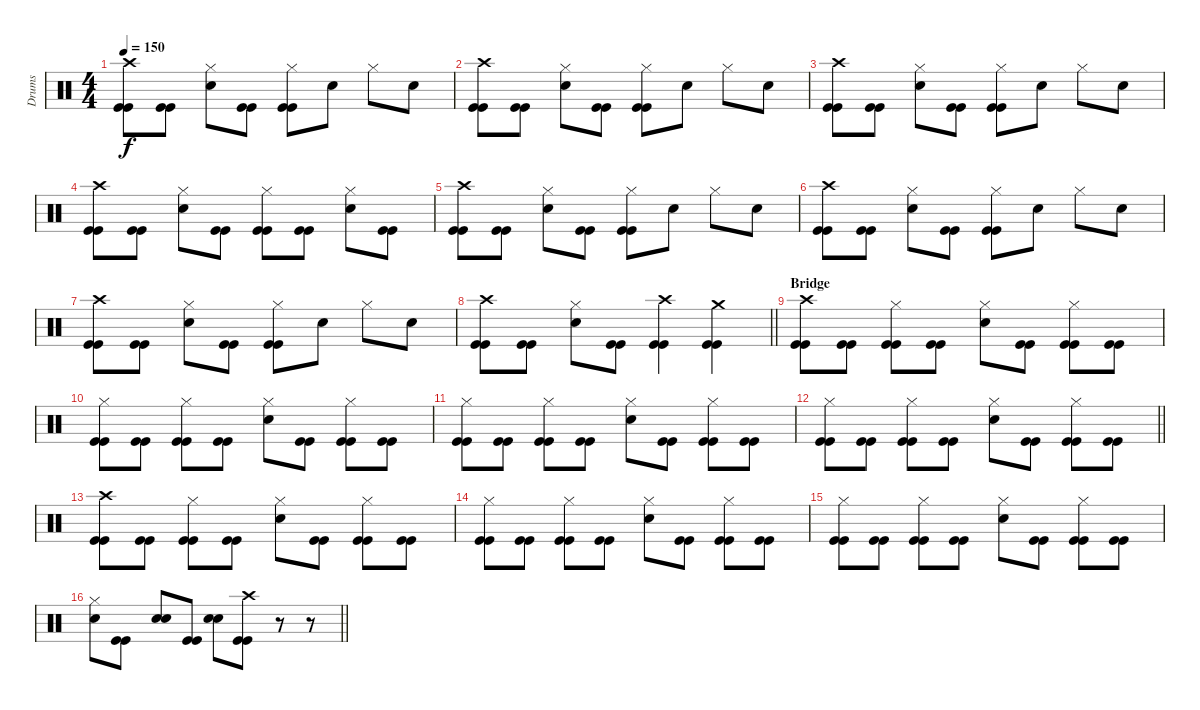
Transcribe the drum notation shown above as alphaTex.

\track ("Drums" "Drums") {instrument percussion}
\staff {score}
\articulation defaults
\ts (4 4)
\tempo 150
\clef neutral
\ks c
("Crash high (hit)" "Kick (hit)" "Kick (hit)").8{dy f} ("Kick (hit)" "Kick (hit)").8 ("Hi-Hat (closed)" "Snare (hit) 2").8 ("Kick (hit)" "Kick (hit)").8 ("Hi-Hat (closed)" "Kick (hit)" "Kick (hit)").8 "Snare (hit) 2".8 "Hi-Hat (closed)".8 "Snare (hit) 2".8 |
("Crash high (hit)" "Kick (hit)" "Kick (hit)").8 ("Kick (hit)" "Kick (hit)").8 ("Hi-Hat (closed)" "Snare (hit) 2").8 ("Kick (hit)" "Kick (hit)").8 ("Hi-Hat (closed)" "Kick (hit)" "Kick (hit)").8 "Snare (hit) 2".8 "Hi-Hat (closed)".8 "Snare (hit) 2".8 |
("Crash high (hit)" "Kick (hit)" "Kick (hit)").8 ("Kick (hit)" "Kick (hit)").8 ("Hi-Hat (closed)" "Snare (hit) 2").8 ("Kick (hit)" "Kick (hit)").8 ("Hi-Hat (closed)" "Kick (hit)" "Kick (hit)").8 "Snare (hit) 2".8 "Hi-Hat (closed)".8 "Snare (hit) 2".8 |
("Crash high (hit)" "Kick (hit)" "Kick (hit)").8 ("Kick (hit)" "Kick (hit)").8 ("Hi-Hat (closed)" "Snare (hit) 2").8 ("Kick (hit)" "Kick (hit)").8 ("Hi-Hat (closed)" "Kick (hit)" "Kick (hit)").8 ("Kick (hit)" "Kick (hit)").8 ("Hi-Hat (closed)" "Snare (hit) 2").8 ("Kick (hit)" "Kick (hit)").8 |
("Crash high (hit)" "Kick (hit)" "Kick (hit)").8 ("Kick (hit)" "Kick (hit)").8 ("Hi-Hat (closed)" "Snare (hit) 2").8 ("Kick (hit)" "Kick (hit)").8 ("Hi-Hat (closed)" "Kick (hit)" "Kick (hit)").8 "Snare (hit) 2".8 "Hi-Hat (closed)".8 "Snare (hit) 2".8 |
("Crash high (hit)" "Kick (hit)" "Kick (hit)").8 ("Kick (hit)" "Kick (hit)").8 ("Hi-Hat (closed)" "Snare (hit) 2").8 ("Kick (hit)" "Kick (hit)").8 ("Hi-Hat (closed)" "Kick (hit)" "Kick (hit)").8 "Snare (hit) 2".8 "Hi-Hat (closed)".8 "Snare (hit) 2".8 |
("Crash high (hit)" "Kick (hit)" "Kick (hit)").8 ("Kick (hit)" "Kick (hit)").8 ("Hi-Hat (closed)" "Snare (hit) 2").8 ("Kick (hit)" "Kick (hit)").8 ("Hi-Hat (closed)" "Kick (hit)" "Kick (hit)").8 "Snare (hit) 2".8 "Hi-Hat (closed)".8 "Snare (hit) 2".8 |
\barLineRight lightlight
("Crash high (hit)" "Kick (hit)" "Kick (hit)").8 ("Kick (hit)" "Kick (hit)").8 ("Hi-Hat (closed)" "Snare (hit) 2").8 ("Kick (hit)" "Kick (hit)").8 ("Crash high (hit)" "Kick (hit)" "Kick (hit)").4 ("Crash medium (hit)" "Kick (hit)" "Kick (hit)").4 |
\section ("" "Bridge")
("Crash high (hit)" "Kick (hit)" "Kick (hit)").8 ("Kick (hit)" "Kick (hit)").8 ("Hi-Hat (closed)" "Kick (hit)" "Kick (hit)").8 ("Kick (hit)" "Kick (hit)").8 ("Hi-Hat (closed)" "Snare (hit) 2").8 ("Kick (hit)" "Kick (hit)").8 ("Hi-Hat (closed)" "Kick (hit)" "Kick (hit)").8 ("Kick (hit)" "Kick (hit)").8 |
("Hi-Hat (closed)" "Kick (hit)" "Kick (hit)").8 ("Kick (hit)" "Kick (hit)").8 ("Hi-Hat (closed)" "Kick (hit)" "Kick (hit)").8 ("Kick (hit)" "Kick (hit)").8 ("Hi-Hat (closed)" "Snare (hit) 2").8 ("Kick (hit)" "Kick (hit)").8 ("Hi-Hat (closed)" "Kick (hit)" "Kick (hit)").8 ("Kick (hit)" "Kick (hit)").8 |
("Hi-Hat (closed)" "Kick (hit)" "Kick (hit)").8 ("Kick (hit)" "Kick (hit)").8 ("Hi-Hat (closed)" "Kick (hit)" "Kick (hit)").8 ("Kick (hit)" "Kick (hit)").8 ("Hi-Hat (closed)" "Snare (hit) 2").8 ("Kick (hit)" "Kick (hit)").8 ("Hi-Hat (closed)" "Kick (hit)" "Kick (hit)").8 ("Kick (hit)" "Kick (hit)").8 |
\barLineRight lightlight
("Hi-Hat (closed)" "Kick (hit)" "Kick (hit)").8 ("Kick (hit)" "Kick (hit)").8 ("Hi-Hat (closed)" "Kick (hit)" "Kick (hit)").8 ("Kick (hit)" "Kick (hit)").8 ("Hi-Hat (closed)" "Snare (hit) 2").8 ("Kick (hit)" "Kick (hit)").8 ("Hi-Hat (closed)" "Kick (hit)" "Kick (hit)").8 ("Kick (hit)" "Kick (hit)").8 |
("Crash high (hit)" "Kick (hit)" "Kick (hit)").8 ("Kick (hit)" "Kick (hit)").8 ("Hi-Hat (closed)" "Kick (hit)" "Kick (hit)").8 ("Kick (hit)" "Kick (hit)").8 ("Hi-Hat (closed)" "Snare (hit) 2").8 ("Kick (hit)" "Kick (hit)").8 ("Hi-Hat (closed)" "Kick (hit)" "Kick (hit)").8 ("Kick (hit)" "Kick (hit)").8 |
("Hi-Hat (closed)" "Kick (hit)" "Kick (hit)").8 ("Kick (hit)" "Kick (hit)").8 ("Hi-Hat (closed)" "Kick (hit)" "Kick (hit)").8 ("Kick (hit)" "Kick (hit)").8 ("Hi-Hat (closed)" "Snare (hit) 2").8 ("Kick (hit)" "Kick (hit)").8 ("Hi-Hat (closed)" "Kick (hit)" "Kick (hit)").8 ("Kick (hit)" "Kick (hit)").8 |
("Hi-Hat (closed)" "Kick (hit)" "Kick (hit)").8 ("Kick (hit)" "Kick (hit)").8 ("Hi-Hat (closed)" "Kick (hit)" "Kick (hit)").8 ("Kick (hit)" "Kick (hit)").8 ("Hi-Hat (closed)" "Snare (hit) 2").8 ("Kick (hit)" "Kick (hit)").8 ("Hi-Hat (closed)" "Kick (hit)" "Kick (hit)").8 ("Kick (hit)" "Kick (hit)").8 |
\barLineRight lightlight
("Hi-Hat (closed)" "Snare (hit) 2").8 ("Kick (hit)" "Kick (hit)").8 ("Snare (hit) 2" "Snare (hit) 2").8 ("Kick (hit)" "Kick (hit)").8 ("Snare (hit) 2" "Snare (hit) 2").8 ("Crash high (hit)" "Kick (hit)" "Kick (hit)").8 r.8 r.8
